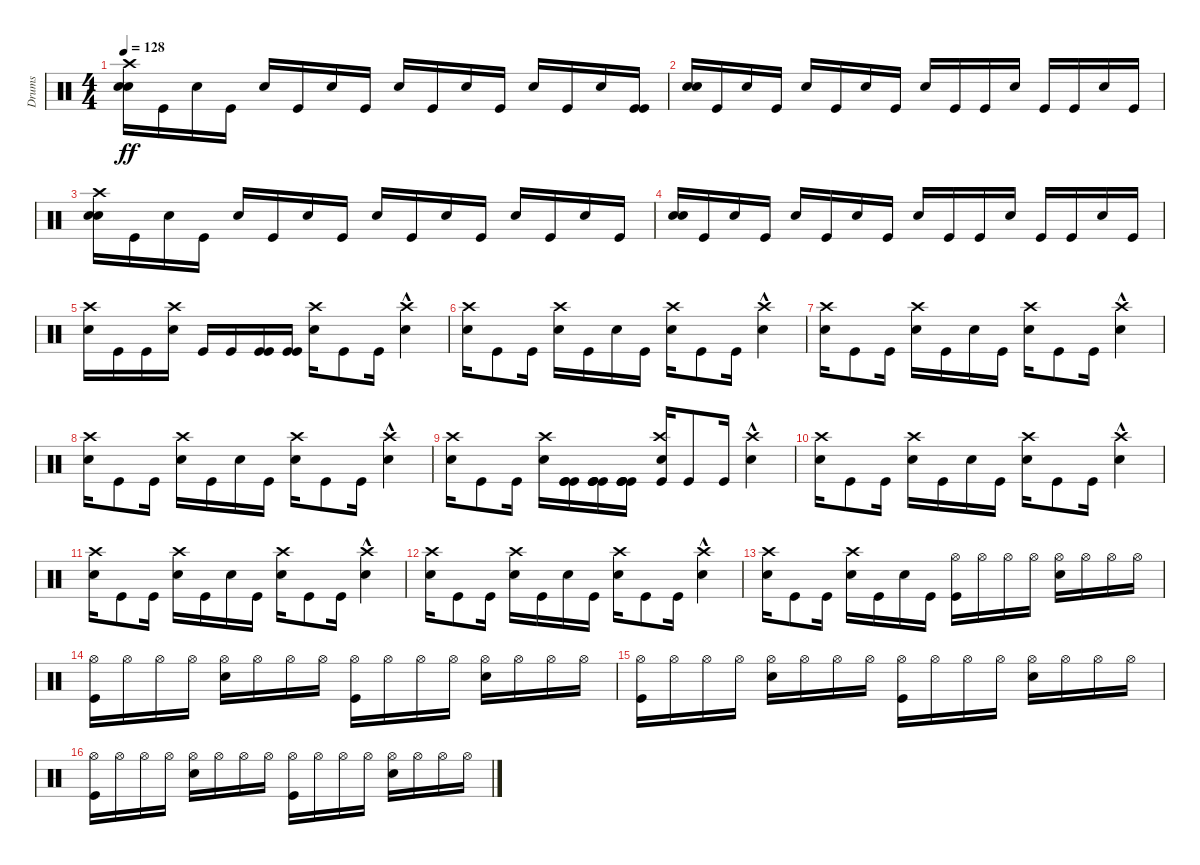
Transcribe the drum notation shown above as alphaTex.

\track ("Drums" "Drums") {instrument percussion}
\staff {score}
\articulation defaults
\ts (4 4)
\tempo 128
\clef neutral
\ks c
("Snare (hit) 2" "Crash high (hit)" "Snare (hit) 2").16{dy ff} "Kick (hit)".16 "Snare (hit) 2".16 "Kick (hit)".16 "Snare (hit) 2".16 "Kick (hit)".16 "Snare (hit) 2".16 "Kick (hit)".16 "Snare (hit) 2".16 "Kick (hit)".16 "Snare (hit) 2".16 "Kick (hit)".16 "Snare (hit) 2".16 "Kick (hit)".16 "Snare (hit) 2".16 ("Kick (hit)" "Kick (hit)").16 |
("Snare (hit) 2" "Snare (hit) 2").16 "Kick (hit)".16 "Snare (hit) 2".16 "Kick (hit)".16 "Snare (hit) 2".16 "Kick (hit)".16 "Snare (hit) 2".16 "Kick (hit)".16 "Snare (hit) 2".16 "Kick (hit)".16 "Kick (hit)".16 "Snare (hit) 2".16 "Kick (hit)".16 "Kick (hit)".16 "Snare (hit) 2".16 "Kick (hit)".16 |
("Snare (hit) 2" "Crash high (hit)" "Snare (hit) 2").16 "Kick (hit)".16 "Snare (hit) 2".16 "Kick (hit)".16 "Snare (hit) 2".16 "Kick (hit)".16 "Snare (hit) 2".16 "Kick (hit)".16 "Snare (hit) 2".16 "Kick (hit)".16 "Snare (hit) 2".16 "Kick (hit)".16 "Snare (hit) 2".16 "Kick (hit)".16 "Snare (hit) 2".16 "Kick (hit)".16 |
("Snare (hit) 2" "Snare (hit) 2").16 "Kick (hit)".16 "Snare (hit) 2".16 "Kick (hit)".16 "Snare (hit) 2".16 "Kick (hit)".16 "Snare (hit) 2".16 "Kick (hit)".16 "Snare (hit) 2".16 "Kick (hit)".16 "Kick (hit)".16 "Snare (hit) 2".16 "Kick (hit)".16 "Kick (hit)".16 "Snare (hit) 2".16 "Kick (hit)".16 |
("Snare (hit) 2" "Crash high (hit)").16 "Kick (hit)".16 "Kick (hit)".16 ("Snare (hit) 2" "Crash high (hit)").16 "Kick (hit)".16 "Kick (hit)".16 ("Kick (hit)" "Kick (hit)").16 ("Kick (hit)" "Kick (hit)").16 ("Snare (hit) 2" "Crash high (hit)").16 "Kick (hit)".8 "Kick (hit)".16 ("Snare (hit) 2"{hac} "Crash high (hit)"{hac}).4 |
("Snare (hit) 2" "Crash high (hit)").16 "Kick (hit)".8 "Kick (hit)".16 ("Snare (hit) 2" "Crash high (hit)").16 "Kick (hit)".16 "Snare (hit) 2".16 "Kick (hit)".16 ("Snare (hit) 2" "Crash high (hit)").16 "Kick (hit)".8 "Kick (hit)".16 ("Snare (hit) 2"{hac} "Crash high (hit)"{hac}).4 |
("Snare (hit) 2" "Crash high (hit)").16 "Kick (hit)".8 "Kick (hit)".16 ("Snare (hit) 2" "Crash high (hit)").16 "Kick (hit)".16 "Snare (hit) 2".16 "Kick (hit)".16 ("Snare (hit) 2" "Crash high (hit)").16 "Kick (hit)".8 "Kick (hit)".16 ("Snare (hit) 2"{hac} "Crash high (hit)"{hac}).4 |
("Snare (hit) 2" "Crash high (hit)").16 "Kick (hit)".8 "Kick (hit)".16 ("Snare (hit) 2" "Crash high (hit)").16 "Kick (hit)".16 "Snare (hit) 2".16 "Kick (hit)".16 ("Snare (hit) 2" "Crash high (hit)").16 "Kick (hit)".8 "Kick (hit)".16 ("Snare (hit) 2"{hac} "Crash high (hit)"{hac}).4 |
("Snare (hit) 2" "Crash high (hit)").16 "Kick (hit)".8 "Kick (hit)".16 ("Snare (hit) 2" "Crash high (hit)").16 ("Kick (hit)" "Kick (hit)" "Kick (hit)").16 ("Kick (hit)" "Kick (hit)" "Kick (hit)" "Kick (hit)").16 ("Kick (hit)" "Kick (hit)" "Kick (hit)" "Kick (hit)").16 ("Kick (hit)" "Snare (hit) 2" "Crash high (hit)").16 "Kick (hit)".8 "Kick (hit)".16 ("Snare (hit) 2"{hac} "Crash high (hit)"{hac}).4 |
("Snare (hit) 2" "Crash high (hit)").16 "Kick (hit)".8 "Kick (hit)".16 ("Snare (hit) 2" "Crash high (hit)").16 "Kick (hit)".16 "Snare (hit) 2".16 "Kick (hit)".16 ("Snare (hit) 2" "Crash high (hit)").16 "Kick (hit)".8 "Kick (hit)".16 ("Snare (hit) 2"{hac} "Crash high (hit)"{hac}).4 |
("Snare (hit) 2" "Crash high (hit)").16 "Kick (hit)".8 "Kick (hit)".16 ("Snare (hit) 2" "Crash high (hit)").16 "Kick (hit)".16 "Snare (hit) 2".16 "Kick (hit)".16 ("Snare (hit) 2" "Crash high (hit)").16 "Kick (hit)".8 "Kick (hit)".16 ("Snare (hit) 2"{hac} "Crash high (hit)"{hac}).4 |
("Snare (hit) 2" "Crash high (hit)").16 "Kick (hit)".8 "Kick (hit)".16 ("Snare (hit) 2" "Crash high (hit)").16 "Kick (hit)".16 "Snare (hit) 2".16 "Kick (hit)".16 ("Snare (hit) 2" "Crash high (hit)").16 "Kick (hit)".8 "Kick (hit)".16 ("Snare (hit) 2"{hac} "Crash high (hit)"{hac}).4 |
("Snare (hit) 2" "Crash high (hit)").16 "Kick (hit)".8 "Kick (hit)".16 ("Snare (hit) 2" "Crash high (hit)").16 "Kick (hit)".16 "Snare (hit) 2".16 "Kick (hit)".16 ("Kick (hit)" "Hi-Hat (open)").16 "Hi-Hat (open)".16 "Hi-Hat (open)".16 "Hi-Hat (open)".16 ("Snare (hit) 2" "Hi-Hat (open)").16 "Hi-Hat (open)".16 "Hi-Hat (open)".16 "Hi-Hat (open)".16 |
("Kick (hit)" "Hi-Hat (open)").16 "Hi-Hat (open)".16 "Hi-Hat (open)".16 "Hi-Hat (open)".16 ("Snare (hit) 2" "Hi-Hat (open)").16 "Hi-Hat (open)".16 "Hi-Hat (open)".16 "Hi-Hat (open)".16 ("Kick (hit)" "Hi-Hat (open)").16 "Hi-Hat (open)".16 "Hi-Hat (open)".16 "Hi-Hat (open)".16 ("Snare (hit) 2" "Hi-Hat (open)").16 "Hi-Hat (open)".16 "Hi-Hat (open)".16 "Hi-Hat (open)".16 |
("Kick (hit)" "Hi-Hat (open)").16 "Hi-Hat (open)".16 "Hi-Hat (open)".16 "Hi-Hat (open)".16 ("Snare (hit) 2" "Hi-Hat (open)").16 "Hi-Hat (open)".16 "Hi-Hat (open)".16 "Hi-Hat (open)".16 ("Kick (hit)" "Hi-Hat (open)").16 "Hi-Hat (open)".16 "Hi-Hat (open)".16 "Hi-Hat (open)".16 ("Snare (hit) 2" "Hi-Hat (open)").16 "Hi-Hat (open)".16 "Hi-Hat (open)".16 "Hi-Hat (open)".16 |
("Kick (hit)" "Hi-Hat (open)").16 "Hi-Hat (open)".16 "Hi-Hat (open)".16 "Hi-Hat (open)".16 ("Snare (hit) 2" "Hi-Hat (open)").16 "Hi-Hat (open)".16 "Hi-Hat (open)".16 "Hi-Hat (open)".16 ("Kick (hit)" "Hi-Hat (open)").16 "Hi-Hat (open)".16 "Hi-Hat (open)".16 "Hi-Hat (open)".16 ("Snare (hit) 2" "Hi-Hat (open)").16 "Hi-Hat (open)".16 "Hi-Hat (open)".16 "Hi-Hat (open)".16
